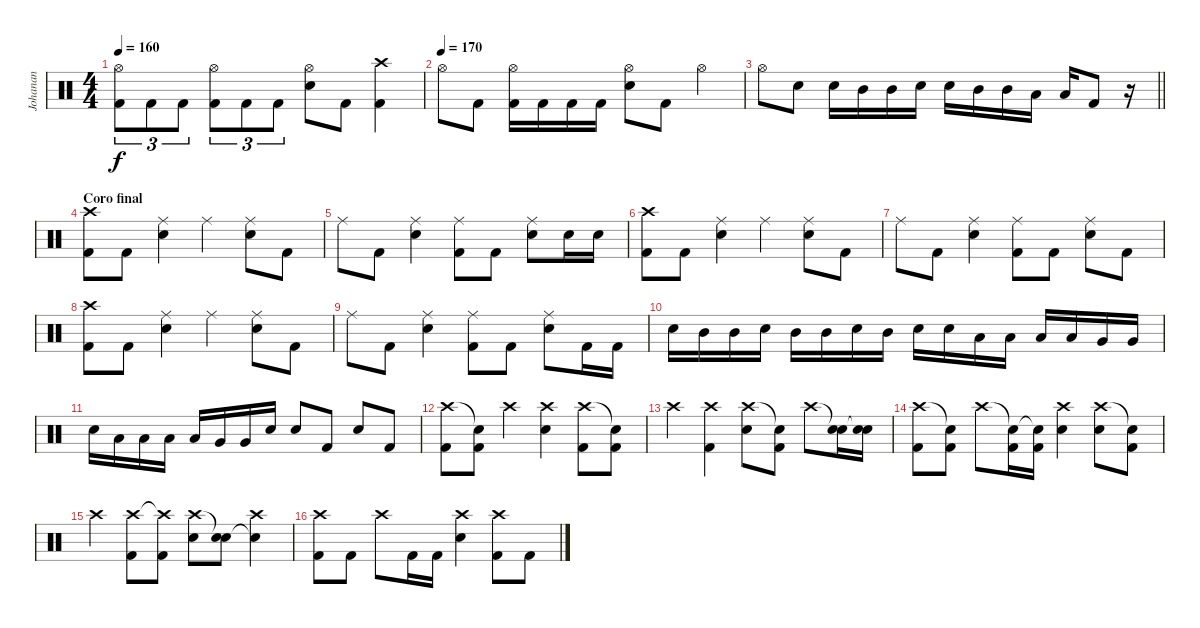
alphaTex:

\track ("Johanan" "Johanan") {instrument percussion}
\staff {score}
\articulation defaults
\ts (4 4)
\tempo 160
\clef neutral
\ks c
("Hi-Hat (open)" "Kick (hit) 2").8{tu (3 2) dy f} "Kick (hit) 2".8{tu (3 2)} "Kick (hit) 2".8{tu (3 2)} ("Hi-Hat (open)" "Kick (hit) 2").8{tu (3 2)} "Kick (hit) 2".8{tu (3 2)} "Kick (hit) 2".8{tu (3 2)} ("Hi-Hat (open)" "Electric Snare (hit)").8 "Kick (hit) 2".8 ("Crash high (hit)" "Kick (hit) 2").4 |
\tempo (170)
"Hi-Hat (open)".8 "Kick (hit) 2".8 ("Hi-Hat (open)" "Kick (hit) 2").16 "Kick (hit) 2".16 "Kick (hit) 2".16 "Kick (hit) 2".16 ("Hi-Hat (open)" "Electric Snare (hit)").8 "Kick (hit) 2".8 "Hi-Hat (open)".4 |
\barLineRight lightlight "Hi-Hat (open)".8 "Electric Snare (hit)".8 "Electric Snare (hit)".16 "Mid Tom (hit)".16 "Mid Tom (hit)".16 "Electric Snare (hit)".16 "Electric Snare (hit)".16 "Mid Tom (hit)".16 "Mid Tom (hit)".16 "Low Tom (hit)".16 "Low Tom (hit)".16 "Kick (hit) 2".8
r.16 |
\section ("" "Coro final")
("Crash high (hit)" "Kick (hit) 2").8 "Kick (hit) 2".8 ("Ride (middle)" "Electric Snare (hit)").4 "Ride (middle)".4 ("Ride (middle)" "Electric Snare (hit)").8 "Kick (hit) 2".8 |
"Ride (middle)".8 "Kick (hit) 2".8 ("Ride (middle)" "Electric Snare (hit)").4 ("Ride (middle)" "Kick (hit) 2").8 "Kick (hit) 2".8 ("Ride (middle)" "Electric Snare (hit)").8 "Electric Snare (hit)".16 "Electric Snare (hit)".16 |
("Crash high (hit)" "Kick (hit) 2").8 "Kick (hit) 2".8 ("Ride (middle)" "Electric Snare (hit)").4 "Ride (middle)".4 ("Ride (middle)" "Electric Snare (hit)").8 "Kick (hit) 2".8 |
"Ride (middle)".8 "Kick (hit) 2".8 ("Ride (middle)" "Electric Snare (hit)").4 ("Ride (middle)" "Kick (hit) 2").8 "Kick (hit) 2".8 ("Ride (middle)" "Electric Snare (hit)").8 "Kick (hit) 2".8 |
("Crash high (hit)" "Kick (hit) 2").8 "Kick (hit) 2".8 ("Ride (middle)" "Electric Snare (hit)").4 "Ride (middle)".4 ("Ride (middle)" "Electric Snare (hit)").8 "Kick (hit) 2".8 |
"Ride (middle)".8 "Kick (hit) 2".8 ("Ride (middle)" "Electric Snare (hit)").4 ("Ride (middle)" "Kick (hit) 2").8 "Kick (hit) 2".8 ("Ride (middle)" "Electric Snare (hit)").8 "Kick (hit) 2".16 "Kick (hit) 2".16 |
"Electric Snare (hit)".16 "Mid Tom (hit)".16 "Mid Tom (hit)".16 "Electric Snare (hit)".16 "Mid Tom (hit)".16 "Mid Tom (hit)".16 "Electric Snare (hit)".16 "Mid Tom (hit)".16 "Electric Snare (hit)".16 "Electric Snare (hit)".16 "Low Tom (hit)".16 "Low Tom (hit)".16 "Low Tom (hit)".16 "Low Tom (hit)".16 "Very Low Tom (hit)".16 "Very Low Tom (hit)".16 |
"Electric Snare (hit)".16 "Low Tom (hit)".16 "Low Tom (hit)".16 "Low Tom (hit)".16 "Low Tom (hit)".16 "Very Low Tom (hit)".16 "Very Low Tom (hit)".16 "Electric Snare (hit)".16 "Electric Snare (hit)".8 "Kick (hit) 2".8 "Electric Snare (hit)".8 "Kick (hit) 2".8 |
("Crash high (hit)" "Kick (hit) 2").8 ("Snare (hit)"{t} "Kick (hit) 2").8 "Crash high (hit)".4 ("Crash high (hit)" "Electric Snare (hit)").4 ("Crash high (hit)" "Kick (hit) 2").8 ("Snare (hit)"{t} "Kick (hit) 2").8 |
"Crash high (hit)".4 ("Crash high (hit)" "Kick (hit) 2").4 ("Crash high (hit)" "Electric Snare (hit)").8 ("Snare (hit)"{t} "Kick (hit) 2").8 "Crash high (hit)".8 ("Snare (hit)"{t} "Electric Snare (hit)").16 ("Snare (hit)"{t} "Electric Snare (hit)").16 |
("Crash high (hit)" "Kick (hit) 2").8 ("Snare (hit)"{t} "Kick (hit) 2").8 "Crash high (hit)".8 ("Snare (hit)"{t} "Kick (hit) 2").16 ("Snare (hit)"{t} "Kick (hit) 2").16 ("Crash high (hit)" "Electric Snare (hit)").4 ("Crash high (hit)" "Electric Snare (hit)").8 ("Snare (hit)"{t} "Kick (hit) 2").8 |
"Crash high (hit)".4 ("Crash high (hit)" "Kick (hit) 2").8 ("Crash high (hit)"{t} "Kick (hit) 2").8 ("Crash high (hit)" "Electric Snare (hit)").8 ("Snare (hit)"{t} "Electric Snare (hit)").8 ("Crash high (hit)" "Snare (hit)"{t}).4 |
("Crash high (hit)" "Kick (hit) 2").8 "Kick (hit) 2".8 "Crash high (hit)".8 "Kick (hit) 2".16 "Kick (hit) 2".16 ("Crash high (hit)" "Electric Snare (hit)").4 ("Crash high (hit)" "Kick (hit) 2").8 "Kick (hit) 2".8
